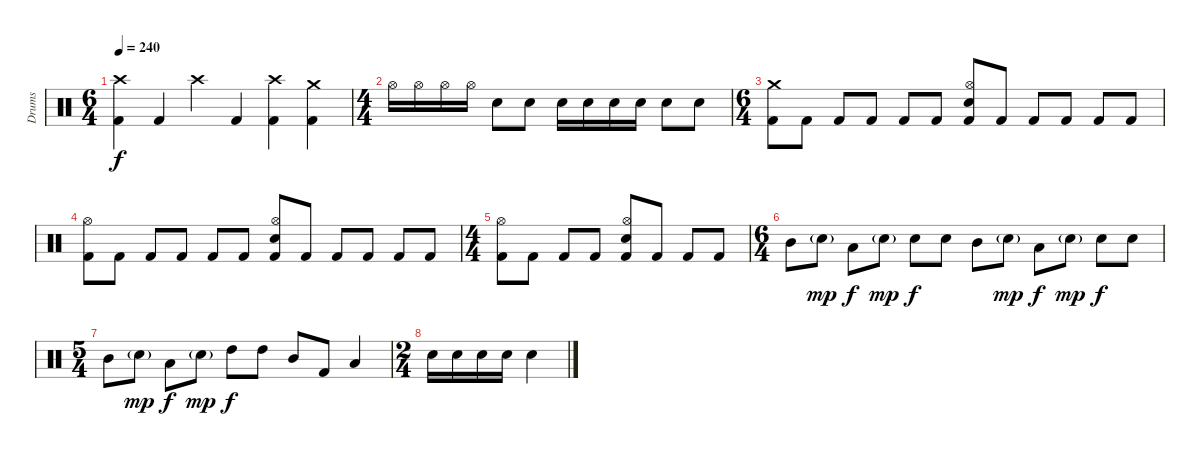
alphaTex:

\track ("Drums" "Drums") {instrument percussion}
\staff {score}
\articulation defaults
\ts (6 4)
\tempo 240
\clef neutral
\ks c
("Crash high (hit)" "Kick (hit) 2").4{dy f} "Kick (hit) 2".4 "Crash high (hit)".4 "Kick (hit) 2".4 ("Kick (hit) 2" "Crash high (hit)").4 ("Kick (hit) 2" "Crash medium (hit)").4 |
\ts (4 4)
"Hi-Hat (open)".16 "Hi-Hat (open)".16 "Hi-Hat (open)".16 "Hi-Hat (open)".16 "Electric Snare (hit)".8 "Electric Snare (hit)".8 "Electric Snare (hit)".16 "Electric Snare (hit)".16 "Electric Snare (hit)".16 "Electric Snare (hit)".16 "Electric Snare (hit)".8 "Electric Snare (hit)".8 |
\ts (6 4)
("Kick (hit) 2" "Crash medium (hit)").8 "Kick (hit) 2".8 "Kick (hit) 2".8 "Kick (hit) 2".8 "Kick (hit) 2".8 "Kick (hit) 2".8 ("Kick (hit) 2" "Hi-Hat (open)" "Electric Snare (hit)").8 "Kick (hit) 2".8 "Kick (hit) 2".8 "Kick (hit) 2".8 "Kick (hit) 2".8 "Kick (hit) 2".8 |
("Kick (hit) 2" "Hi-Hat (open)").8 "Kick (hit) 2".8 "Kick (hit) 2".8 "Kick (hit) 2".8 "Kick (hit) 2".8 "Kick (hit) 2".8 ("Kick (hit) 2" "Hi-Hat (open)" "Electric Snare (hit)").8 "Kick (hit) 2".8 "Kick (hit) 2".8 "Kick (hit) 2".8 "Kick (hit) 2".8 "Kick (hit) 2".8 |
\ts (4 4)
("Kick (hit) 2" "Hi-Hat (open)").8 "Kick (hit) 2".8 "Kick (hit) 2".8 "Kick (hit) 2".8 ("Kick (hit) 2" "Hi-Hat (open)" "Electric Snare (hit)").8 "Kick (hit) 2".8 "Kick (hit) 2".8 "Kick (hit) 2".8 |
\ts (6 4)
"Mid Tom (hit)".8 "Electric Snare (hit)"{g}.8{dy mp} "Low Tom (hit)".8{dy f} "Electric Snare (hit)"{g}.8{dy mp} "Electric Snare (hit)".8{dy f} "Electric Snare (hit)".8 "Mid Tom (hit)".8 "Electric Snare (hit)"{g}.8{dy mp} "Low Tom (hit)".8{dy f} "Electric Snare (hit)"{g}.8{dy mp} "Electric Snare (hit)".8{dy f} "Electric Snare (hit)".8 |
\ts (5 4)
"Mid Tom (hit)".8 "Electric Snare (hit)"{g}.8{dy mp} "Low Tom (hit)".8{dy f} "Electric Snare (hit)"{g}.8{dy mp} "High Tom (hit)".8{dy f} "High Tom (hit)".8 "Mid Tom (hit)".8 "Kick (hit) 2".8 "Low Tom (hit)".4 |
\ts (2 4)
"Electric Snare (hit)".16 "Electric Snare (hit)".16 "Electric Snare (hit)".16 "Electric Snare (hit)".16 "Electric Snare (hit)".4
